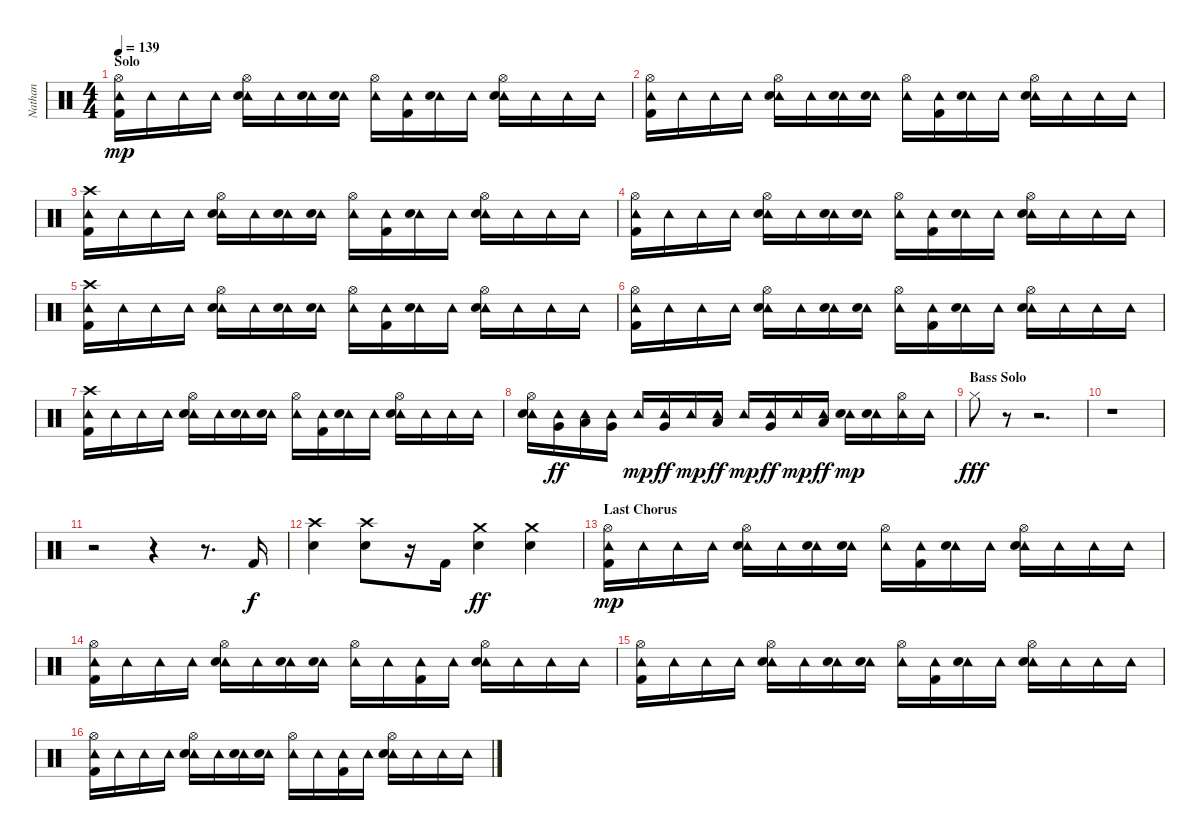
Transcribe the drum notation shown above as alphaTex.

\track ("Nathan" "Nathan") {instrument percussion}
\staff {score}
\articulation defaults
\ts (4 4)
\section ("" "Solo")
\tempo 139
\clef neutral
\ks c
("Hi-Hat (open)" "Tambourine (hit)" "Kick (hit) 2").16{dy mp} "Tambourine (hit)".16 "Tambourine (hit)".16 "Tambourine (hit)".16 ("Hi-Hat (open)" "Tambourine (hit)" "Electric Snare (hit)").16 "Tambourine (hit)".16 ("Tambourine (hit)" "Electric Snare (hit)").16 ("Tambourine (hit)" "Electric Snare (hit)").16 ("Hi-Hat (open)" "Tambourine (hit)").16 ("Tambourine (hit)" "Kick (hit) 2").16 ("Tambourine (hit)" "Electric Snare (hit)").16 "Tambourine (hit)".16 ("Hi-Hat (open)" "Tambourine (hit)" "Electric Snare (hit)").16 "Tambourine (hit)".16 "Tambourine (hit)".16 "Tambourine (hit)".16 |
("Hi-Hat (open)" "Tambourine (hit)" "Kick (hit) 2").16 "Tambourine (hit)".16 "Tambourine (hit)".16 "Tambourine (hit)".16 ("Hi-Hat (open)" "Tambourine (hit)" "Electric Snare (hit)").16 "Tambourine (hit)".16 ("Tambourine (hit)" "Electric Snare (hit)").16 ("Tambourine (hit)" "Electric Snare (hit)").16 ("Hi-Hat (open)" "Tambourine (hit)").16 ("Tambourine (hit)" "Kick (hit) 2").16 ("Tambourine (hit)" "Electric Snare (hit)").16 "Tambourine (hit)".16 ("Hi-Hat (open)" "Tambourine (hit)" "Electric Snare (hit)").16 "Tambourine (hit)".16 "Tambourine (hit)".16 "Tambourine (hit)".16 |
("Crash high (hit)" "Tambourine (hit)" "Kick (hit) 2").16 "Tambourine (hit)".16 "Tambourine (hit)".16 "Tambourine (hit)".16 ("Hi-Hat (open)" "Tambourine (hit)" "Electric Snare (hit)").16 "Tambourine (hit)".16 ("Tambourine (hit)" "Electric Snare (hit)").16 ("Tambourine (hit)" "Electric Snare (hit)").16 ("Hi-Hat (open)" "Tambourine (hit)").16 ("Tambourine (hit)" "Kick (hit) 2").16 ("Tambourine (hit)" "Electric Snare (hit)").16 "Tambourine (hit)".16 ("Hi-Hat (open)" "Tambourine (hit)" "Electric Snare (hit)").16 "Tambourine (hit)".16 "Tambourine (hit)".16 "Tambourine (hit)".16 |
("Hi-Hat (open)" "Tambourine (hit)" "Kick (hit) 2").16 "Tambourine (hit)".16 "Tambourine (hit)".16 "Tambourine (hit)".16 ("Hi-Hat (open)" "Tambourine (hit)" "Electric Snare (hit)").16 "Tambourine (hit)".16 ("Tambourine (hit)" "Electric Snare (hit)").16 ("Tambourine (hit)" "Electric Snare (hit)").16 ("Hi-Hat (open)" "Tambourine (hit)").16 ("Tambourine (hit)" "Kick (hit) 2").16 ("Tambourine (hit)" "Electric Snare (hit)").16 "Tambourine (hit)".16 ("Hi-Hat (open)" "Tambourine (hit)" "Electric Snare (hit)").16 "Tambourine (hit)".16 "Tambourine (hit)".16 "Tambourine (hit)".16 |
("Crash high (hit)" "Tambourine (hit)" "Kick (hit) 2").16 "Tambourine (hit)".16 "Tambourine (hit)".16 "Tambourine (hit)".16 ("Hi-Hat (open)" "Tambourine (hit)" "Electric Snare (hit)").16 "Tambourine (hit)".16 ("Tambourine (hit)" "Electric Snare (hit)").16 ("Tambourine (hit)" "Electric Snare (hit)").16 ("Hi-Hat (open)" "Tambourine (hit)").16 ("Tambourine (hit)" "Kick (hit) 2").16 ("Tambourine (hit)" "Electric Snare (hit)").16 "Tambourine (hit)".16 ("Hi-Hat (open)" "Tambourine (hit)" "Electric Snare (hit)").16 "Tambourine (hit)".16 "Tambourine (hit)".16 "Tambourine (hit)".16 |
("Hi-Hat (open)" "Tambourine (hit)" "Kick (hit) 2").16 "Tambourine (hit)".16 "Tambourine (hit)".16 "Tambourine (hit)".16 ("Hi-Hat (open)" "Tambourine (hit)" "Electric Snare (hit)").16 "Tambourine (hit)".16 ("Tambourine (hit)" "Electric Snare (hit)").16 ("Tambourine (hit)" "Electric Snare (hit)").16 ("Hi-Hat (open)" "Tambourine (hit)").16 ("Tambourine (hit)" "Kick (hit) 2").16 ("Tambourine (hit)" "Electric Snare (hit)").16 "Tambourine (hit)".16 ("Hi-Hat (open)" "Tambourine (hit)" "Electric Snare (hit)").16 "Tambourine (hit)".16 "Tambourine (hit)".16 "Tambourine (hit)".16 |
("Crash high (hit)" "Tambourine (hit)" "Kick (hit) 2").16 "Tambourine (hit)".16 "Tambourine (hit)".16 "Tambourine (hit)".16 ("Hi-Hat (open)" "Tambourine (hit)" "Electric Snare (hit)").16 "Tambourine (hit)".16 ("Tambourine (hit)" "Electric Snare (hit)").16 ("Tambourine (hit)" "Electric Snare (hit)").16 ("Hi-Hat (open)" "Tambourine (hit)").16 ("Tambourine (hit)" "Kick (hit) 2").16 ("Tambourine (hit)" "Electric Snare (hit)").16 "Tambourine (hit)".16 ("Hi-Hat (open)" "Tambourine (hit)" "Electric Snare (hit)").16 "Tambourine (hit)".16 "Tambourine (hit)".16 "Tambourine (hit)".16 |
("Hi-Hat (open)" "Tambourine (hit)" "Electric Snare (hit)").16 ("Tambourine (hit)" "Very Low Tom (hit)").16{dy ff} ("Tambourine (hit)" "Low Tom (hit)").16 ("Tambourine (hit)" "Very Low Tom (hit)").16 "Tambourine (hit)".16{dy mp} ("Tambourine (hit)" "Very Low Tom (hit)").16{dy ff} "Tambourine (hit)".16{dy mp} ("Tambourine (hit)" "Low Tom (hit)").16{dy ff} "Tambourine (hit)".16{dy mp} ("Tambourine (hit)" "Very Low Tom (hit)").16{dy ff} "Tambourine (hit)".16{dy mp} ("Tambourine (hit)" "Low Tom (hit)").16{dy ff} ("Tambourine (hit)" "Electric Snare (hit)").16{dy mp} ("Tambourine (hit)" "Electric Snare (hit)").16 ("Hi-Hat (open)" "Tambourine (hit)").16 "Tambourine (hit)".16 |
\section ("" "Bass Solo")
"Hi-Hat (closed)".8{dy fff} r.8 r.2{d} |
r.1 |
r.2 r.4 r.8{d} "Kick (hit) 2".16{dy f} |
("Crash high (hit)" "Electric Snare (hit)").4 ("Crash high (hit)" "Electric Snare (hit)").8 r.16 "Kick (hit) 2".16 ("Crash medium (hit)" "Electric Snare (hit)").4{dy ff} ("Crash medium (hit)" "Electric Snare (hit)").4 |
\section ("" "Last Chorus")
("Hi-Hat (open)" "Tambourine (hit)" "Kick (hit) 2").16{dy mp} "Tambourine (hit)".16 "Tambourine (hit)".16 "Tambourine (hit)".16 ("Hi-Hat (open)" "Tambourine (hit)" "Electric Snare (hit)").16 "Tambourine (hit)".16 ("Tambourine (hit)" "Electric Snare (hit)").16 ("Tambourine (hit)" "Electric Snare (hit)").16 ("Hi-Hat (open)" "Tambourine (hit)").16 ("Tambourine (hit)" "Kick (hit) 2").16 ("Tambourine (hit)" "Electric Snare (hit)").16 "Tambourine (hit)".16 ("Hi-Hat (open)" "Tambourine (hit)" "Electric Snare (hit)").16 "Tambourine (hit)".16 "Tambourine (hit)".16 "Tambourine (hit)".16 |
("Hi-Hat (open)" "Tambourine (hit)" "Kick (hit) 2").16 "Tambourine (hit)".16 "Tambourine (hit)".16 "Tambourine (hit)".16 ("Hi-Hat (open)" "Tambourine (hit)" "Electric Snare (hit)").16 "Tambourine (hit)".16 ("Tambourine (hit)" "Electric Snare (hit)").16 ("Tambourine (hit)" "Electric Snare (hit)").16 ("Hi-Hat (open)" "Tambourine (hit)").16 "Tambourine (hit)".16 ("Tambourine (hit)" "Kick (hit) 2").16 "Tambourine (hit)".16 ("Hi-Hat (open)" "Tambourine (hit)" "Electric Snare (hit)").16 "Tambourine (hit)".16 "Tambourine (hit)".16 "Tambourine (hit)".16 |
("Hi-Hat (open)" "Tambourine (hit)" "Kick (hit) 2").16 "Tambourine (hit)".16 "Tambourine (hit)".16 "Tambourine (hit)".16 ("Hi-Hat (open)" "Tambourine (hit)" "Electric Snare (hit)").16 "Tambourine (hit)".16 ("Tambourine (hit)" "Electric Snare (hit)").16 ("Tambourine (hit)" "Electric Snare (hit)").16 ("Hi-Hat (open)" "Tambourine (hit)").16 ("Tambourine (hit)" "Kick (hit) 2").16 ("Tambourine (hit)" "Electric Snare (hit)").16 "Tambourine (hit)".16 ("Hi-Hat (open)" "Tambourine (hit)" "Electric Snare (hit)").16 "Tambourine (hit)".16 "Tambourine (hit)".16 "Tambourine (hit)".16 |
("Hi-Hat (open)" "Tambourine (hit)" "Kick (hit) 2").16 "Tambourine (hit)".16 "Tambourine (hit)".16 "Tambourine (hit)".16 ("Hi-Hat (open)" "Tambourine (hit)" "Electric Snare (hit)").16 "Tambourine (hit)".16 ("Tambourine (hit)" "Electric Snare (hit)").16 ("Tambourine (hit)" "Electric Snare (hit)").16 ("Hi-Hat (open)" "Tambourine (hit)").16 "Tambourine (hit)".16 ("Tambourine (hit)" "Kick (hit) 2").16 "Tambourine (hit)".16 ("Hi-Hat (open)" "Tambourine (hit)" "Electric Snare (hit)").16 "Tambourine (hit)".16 "Tambourine (hit)".16 "Tambourine (hit)".16
